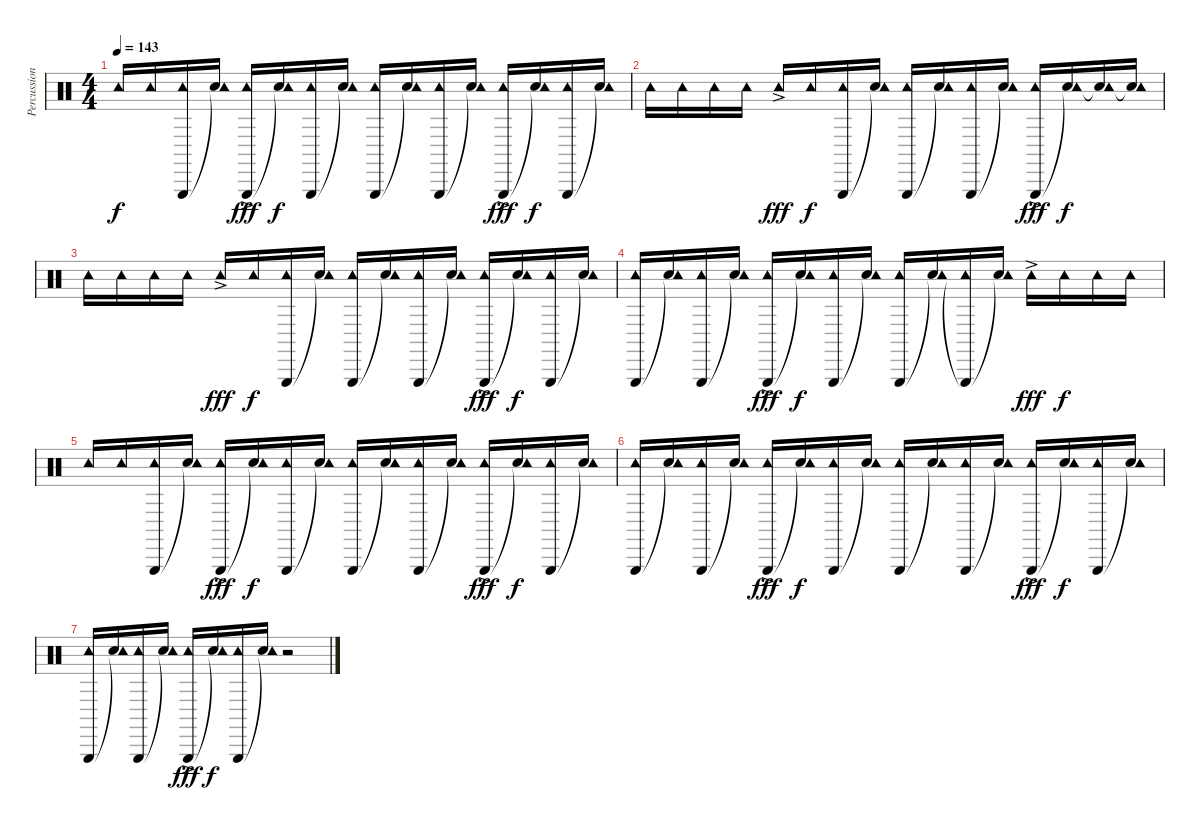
\track ("Percussion" "Percussion") {instrument percussion}
\staff {score}
\articulation defaults
\ts (4 4)
\tempo 143
\clef neutral
\ks aminor "Tambourine (hit)".16{dy f} "Tambourine (hit)".16
("Triangle (hit)" "Tambourine (hit)").16 ("Snare (hit)"{t} "Tambourine (hit)").16 ("Triangle (hit)" "Tambourine (hit)"{ac}).16{dy fff} ("Snare (hit)"{t} "Tambourine (hit)").16{dy f} ("Triangle (hit)" "Tambourine (hit)").16 ("Snare (hit)"{t} "Tambourine (hit)").16 ("Triangle (hit)" "Tambourine (hit)").16 ("Snare (hit)"{t} "Tambourine (hit)").16 ("Triangle (hit)" "Tambourine (hit)").16 ("Snare (hit)"{t} "Tambourine (hit)").16 ("Triangle (hit)" "Tambourine (hit)"{ac}).16{dy fff} ("Snare (hit)"{t} "Tambourine (hit)").16{dy f} ("Triangle (hit)" "Tambourine (hit)").16 ("Snare (hit)"{t} "Tambourine (hit)").16 |
"Tambourine (hit)".16 "Tambourine (hit)".16 "Tambourine (hit)".16 "Tambourine (hit)".16 "Tambourine (hit)"{ac}.16{dy fff} "Tambourine (hit)".16{dy f} ("Triangle (hit)" "Tambourine (hit)").16 ("Snare (hit)"{t} "Tambourine (hit)").16 ("Triangle (hit)" "Tambourine (hit)").16 ("Snare (hit)"{t} "Tambourine (hit)").16 ("Triangle (hit)" "Tambourine (hit)").16 ("Snare (hit)"{t} "Tambourine (hit)").16 ("Triangle (hit)" "Tambourine (hit)"{ac}).16{dy fff} ("Snare (hit)"{t} "Tambourine (hit)").16{dy f} ("Snare (hit)"{t} "Tambourine (hit)").16 ("Snare (hit)"{t} "Tambourine (hit)").16 |
"Tambourine (hit)".16 "Tambourine (hit)".16 "Tambourine (hit)".16 "Tambourine (hit)".16 "Tambourine (hit)"{ac}.16{dy fff} "Tambourine (hit)".16{dy f} ("Triangle (hit)" "Tambourine (hit)").16 ("Snare (hit)"{t} "Tambourine (hit)").16 ("Triangle (hit)" "Tambourine (hit)").16 ("Snare (hit)"{t} "Tambourine (hit)").16 ("Triangle (hit)" "Tambourine (hit)").16 ("Snare (hit)"{t} "Tambourine (hit)").16 ("Triangle (hit)" "Tambourine (hit)"{ac}).16{dy fff} ("Snare (hit)"{t} "Tambourine (hit)").16{dy f} ("Triangle (hit)" "Tambourine (hit)").16 ("Snare (hit)"{t} "Tambourine (hit)").16 |
("Triangle (hit)" "Tambourine (hit)").16 ("Snare (hit)"{t} "Tambourine (hit)").16 ("Triangle (hit)" "Tambourine (hit)").16 ("Snare (hit)"{t} "Tambourine (hit)").16 ("Triangle (hit)" "Tambourine (hit)"{ac}).16{dy fff} ("Snare (hit)"{t} "Tambourine (hit)").16{dy f} ("Triangle (hit)" "Tambourine (hit)").16 ("Snare (hit)"{t} "Tambourine (hit)").16 ("Triangle (hit)" "Tambourine (hit)").16 ("Snare (hit)"{t} "Tambourine (hit)").16 ("Triangle (hit)"{t} "Tambourine (hit)").16 ("Snare (hit)"{t} "Tambourine (hit)").16 "Tambourine (hit)"{ac}.16{dy fff} "Tambourine (hit)".16{dy f} "Tambourine (hit)".16 "Tambourine (hit)".16 |
"Tambourine (hit)".16 "Tambourine (hit)".16 ("Triangle (hit)" "Tambourine (hit)").16 ("Snare (hit)"{t} "Tambourine (hit)").16 ("Triangle (hit)" "Tambourine (hit)"{ac}).16{dy fff} ("Snare (hit)"{t} "Tambourine (hit)").16{dy f} ("Triangle (hit)" "Tambourine (hit)").16 ("Snare (hit)"{t} "Tambourine (hit)").16 ("Triangle (hit)" "Tambourine (hit)").16 ("Snare (hit)"{t} "Tambourine (hit)").16 ("Triangle (hit)" "Tambourine (hit)").16 ("Snare (hit)"{t} "Tambourine (hit)").16 ("Triangle (hit)" "Tambourine (hit)"{ac}).16{dy fff} ("Snare (hit)"{t} "Tambourine (hit)").16{dy f} ("Triangle (hit)" "Tambourine (hit)").16 ("Snare (hit)"{t} "Tambourine (hit)").16 |
("Triangle (hit)" "Tambourine (hit)").16 ("Snare (hit)"{t} "Tambourine (hit)").16 ("Triangle (hit)" "Tambourine (hit)").16 ("Snare (hit)"{t} "Tambourine (hit)").16 ("Triangle (hit)" "Tambourine (hit)"{ac}).16{dy fff} ("Snare (hit)"{t} "Tambourine (hit)").16{dy f} ("Triangle (hit)" "Tambourine (hit)").16 ("Snare (hit)"{t} "Tambourine (hit)").16 ("Triangle (hit)" "Tambourine (hit)").16 ("Snare (hit)"{t} "Tambourine (hit)").16 ("Triangle (hit)" "Tambourine (hit)").16 ("Snare (hit)"{t} "Tambourine (hit)").16 ("Triangle (hit)" "Tambourine (hit)"{ac}).16{dy fff} ("Snare (hit)"{t} "Tambourine (hit)").16{dy f} ("Triangle (hit)" "Tambourine (hit)").16 ("Snare (hit)"{t} "Tambourine (hit)").16 |
("Triangle (hit)" "Tambourine (hit)").16 ("Snare (hit)"{t} "Tambourine (hit)").16 ("Triangle (hit)" "Tambourine (hit)").16 ("Snare (hit)"{t} "Tambourine (hit)").16 ("Triangle (hit)" "Tambourine (hit)"{ac}).16{dy fff} ("Snare (hit)"{t} "Tambourine (hit)").16{dy f} ("Triangle (hit)" "Tambourine (hit)").16 ("Snare (hit)"{t} "Tambourine (hit)").16 r.2
